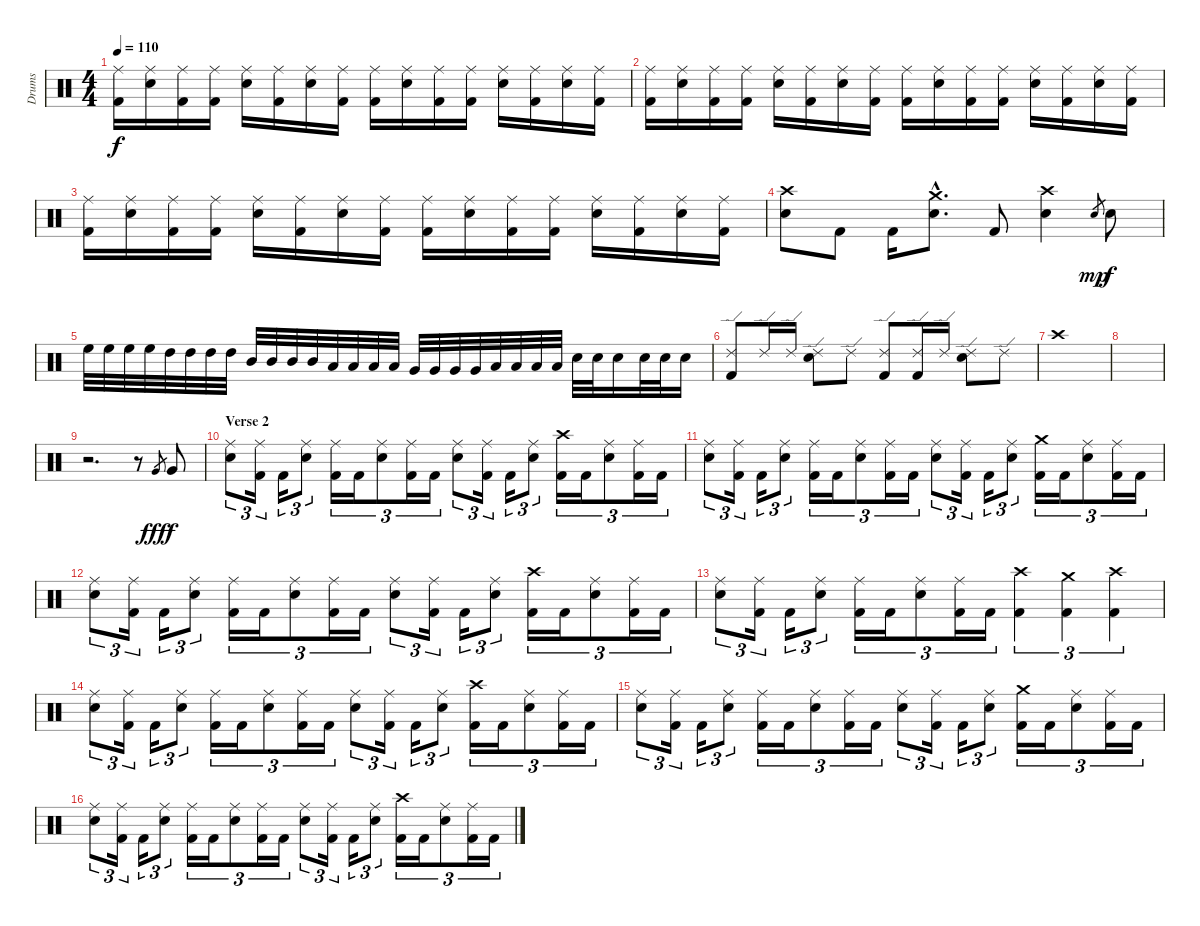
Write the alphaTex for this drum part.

\track ("Drums" "Drums") {instrument percussion}
\staff {score}
\articulation defaults
\ts (4 4)
\tempo 110
\clef neutral
\ks c
("Ride (middle)" "Kick (hit) 2").16{dy f} ("Ride (middle)" "Electric Snare (hit)").16 ("Ride (middle)" "Kick (hit) 2").16 ("Ride (middle)" "Kick (hit) 2").16 ("Ride (middle)" "Electric Snare (hit)").16 ("Ride (middle)" "Kick (hit) 2").16 ("Ride (middle)" "Electric Snare (hit)").16 ("Ride (middle)" "Kick (hit) 2").16 ("Ride (middle)" "Kick (hit) 2").16 ("Ride (middle)" "Electric Snare (hit)").16 ("Ride (middle)" "Kick (hit) 2").16 ("Ride (middle)" "Kick (hit) 2").16 ("Ride (middle)" "Electric Snare (hit)").16 ("Ride (middle)" "Kick (hit) 2").16 ("Ride (middle)" "Electric Snare (hit)").16 ("Ride (middle)" "Kick (hit) 2").16 |
("Ride (middle)" "Kick (hit) 2").16 ("Ride (middle)" "Electric Snare (hit)").16 ("Ride (middle)" "Kick (hit) 2").16 ("Ride (middle)" "Kick (hit) 2").16 ("Ride (middle)" "Electric Snare (hit)").16 ("Ride (middle)" "Kick (hit) 2").16 ("Ride (middle)" "Electric Snare (hit)").16 ("Ride (middle)" "Kick (hit) 2").16 ("Ride (middle)" "Kick (hit) 2").16 ("Ride (middle)" "Electric Snare (hit)").16 ("Ride (middle)" "Kick (hit) 2").16 ("Ride (middle)" "Kick (hit) 2").16 ("Ride (middle)" "Electric Snare (hit)").16 ("Ride (middle)" "Kick (hit) 2").16 ("Ride (middle)" "Electric Snare (hit)").16 ("Ride (middle)" "Kick (hit) 2").16 |
("Ride (middle)" "Kick (hit) 2").16 ("Ride (middle)" "Electric Snare (hit)").16 ("Ride (middle)" "Kick (hit) 2").16 ("Ride (middle)" "Kick (hit) 2").16 ("Ride (middle)" "Electric Snare (hit)").16 ("Ride (middle)" "Kick (hit) 2").16 ("Ride (middle)" "Electric Snare (hit)").16 ("Ride (middle)" "Kick (hit) 2").16 ("Ride (middle)" "Kick (hit) 2").16 ("Ride (middle)" "Electric Snare (hit)").16 ("Ride (middle)" "Kick (hit) 2").16 ("Ride (middle)" "Kick (hit) 2").16 ("Ride (middle)" "Electric Snare (hit)").16 ("Ride (middle)" "Kick (hit) 2").16 ("Ride (middle)" "Electric Snare (hit)").16 ("Ride (middle)" "Kick (hit) 2").16 |
("Crash high (hit)" "Electric Snare (hit)").8 "Kick (hit) 2".8 "Kick (hit) 2".16 ("Crash medium (hit)"{hac} "Electric Snare (hit)"{hac}).8{d} "Kick (hit) 2".8 ("Crash high (hit)" "Electric Snare (hit)").4 "Electric Snare (hit)"{h}.8{gr dy mp} "Electric Snare (hit)".8{dy f} |
"High Floor Tom (hit)".32 "High Floor Tom (hit)".32 "High Floor Tom (hit)".32 "High Floor Tom (hit)".32 "High Tom (hit)".32 "High Tom (hit)".32 "High Tom (hit)".32 "High Tom (hit)".32 "Mid Tom (hit)".32 "Mid Tom (hit)".32 "Mid Tom (hit)".32 "Mid Tom (hit)".32 "Low Tom (hit)".32 "Low Tom (hit)".32 "Low Tom (hit)".32 "Low Tom (hit)".32 "Very Low Tom (hit)".32 "Very Low Tom (hit)".32 "Very Low Tom (hit)".32 "Very Low Tom (hit)".32 "Low Floor Tom (hit)".32 "Low Floor Tom (hit)".32 "Low Floor Tom (hit)".32 "Low Floor Tom (hit)".32 "Snare (hit) 2".32 "Snare (hit) 2".32 "Snare (hit) 2".16 "Electric Snare (hit)".32 "Electric Snare (hit)".32 "Electric Snare (hit)".16 |
("Ride (edge) 2" "Kick (hit) 2").8 "Ride (edge) 2".16 "Ride (edge) 2".16 ("Ride (edge) 2" "Snare (hit) 2").8 "Ride (edge) 2".8 ("Ride (edge) 2" "Kick (hit) 2").8 ("Ride (edge) 2" "Kick (hit) 2").16 "Ride (edge) 2".16 ("Ride (edge) 2" "Snare (hit) 2").8 "Ride (edge) 2".8 |
"Crash high (hit)".1 |
|
r.2{d} r.8 "Very Low Tom (hit)"{h}.8{gr dy fff} "Very Low Tom (hit)".8{dy f} |
\section ("" "Verse 2")
("Ride (middle)" "Electric Snare (hit)").8{tu (3 2)} ("Ride (middle)" "Kick (hit) 2").16{tu (3 2)} "Kick (hit) 2".16{tu (3 2)} ("Ride (middle)" "Electric Snare (hit)").8{tu (3 2)} ("Ride (middle)" "Kick (hit) 2").16{tu (3 2)} "Kick (hit) 2".16{tu (3 2)} ("Ride (middle)" "Electric Snare (hit)").8{tu (3 2)} ("Ride (middle)" "Kick (hit) 2").16{tu (3 2)} "Kick (hit) 2".16{tu (3 2)} ("Ride (middle)" "Electric Snare (hit)").8{tu (3 2)} ("Ride (middle)" "Kick (hit) 2").16{tu (3 2)} "Kick (hit) 2".16{tu (3 2)} ("Ride (middle)" "Electric Snare (hit)").8{tu (3 2)} ("Crash high (hit)" "Kick (hit) 2").16{tu (3 2)} "Kick (hit) 2".16{tu (3 2)} ("Ride (middle)" "Electric Snare (hit)").8{tu (3 2)} ("Ride (middle)" "Kick (hit) 2").16{tu (3 2)} "Kick (hit) 2".16{tu (3 2)} |
("Ride (middle)" "Electric Snare (hit)").8{tu (3 2)} ("Ride (middle)" "Kick (hit) 2").16{tu (3 2)} "Kick (hit) 2".16{tu (3 2)} ("Ride (middle)" "Electric Snare (hit)").8{tu (3 2)} ("Ride (middle)" "Kick (hit) 2").16{tu (3 2)} "Kick (hit) 2".16{tu (3 2)} ("Ride (middle)" "Electric Snare (hit)").8{tu (3 2)} ("Ride (middle)" "Kick (hit) 2").16{tu (3 2)} "Kick (hit) 2".16{tu (3 2)} ("Ride (middle)" "Electric Snare (hit)").8{tu (3 2)} ("Ride (middle)" "Kick (hit) 2").16{tu (3 2)} "Kick (hit) 2".16{tu (3 2)} ("Ride (middle)" "Electric Snare (hit)").8{tu (3 2)} ("Crash medium (hit)" "Kick (hit) 2").16{tu (3 2)} "Kick (hit) 2".16{tu (3 2)} ("Ride (middle)" "Electric Snare (hit)").8{tu (3 2)} ("Ride (middle)" "Kick (hit) 2").16{tu (3 2)} "Kick (hit) 2".16{tu (3 2)} |
("Ride (middle)" "Electric Snare (hit)").8{tu (3 2)} ("Ride (middle)" "Kick (hit) 2").16{tu (3 2)} "Kick (hit) 2".16{tu (3 2)} ("Ride (middle)" "Electric Snare (hit)").8{tu (3 2)} ("Ride (middle)" "Kick (hit) 2").16{tu (3 2)} "Kick (hit) 2".16{tu (3 2)} ("Ride (middle)" "Electric Snare (hit)").8{tu (3 2)} ("Ride (middle)" "Kick (hit) 2").16{tu (3 2)} "Kick (hit) 2".16{tu (3 2)} ("Ride (middle)" "Electric Snare (hit)").8{tu (3 2)} ("Ride (middle)" "Kick (hit) 2").16{tu (3 2)} "Kick (hit) 2".16{tu (3 2)} ("Ride (middle)" "Electric Snare (hit)").8{tu (3 2)} ("Crash high (hit)" "Kick (hit) 2").16{tu (3 2)} "Kick (hit) 2".16{tu (3 2)} ("Ride (middle)" "Electric Snare (hit)").8{tu (3 2)} ("Ride (middle)" "Kick (hit) 2").16{tu (3 2)} "Kick (hit) 2".16{tu (3 2)} |
("Ride (middle)" "Electric Snare (hit)").8{tu (3 2)} ("Ride (middle)" "Kick (hit) 2").16{tu (3 2)} "Kick (hit) 2".16{tu (3 2)} ("Ride (middle)" "Electric Snare (hit)").8{tu (3 2)} ("Ride (middle)" "Kick (hit) 2").16{tu (3 2)} "Kick (hit) 2".16{tu (3 2)} ("Ride (middle)" "Electric Snare (hit)").8{tu (3 2)} ("Ride (middle)" "Kick (hit) 2").16{tu (3 2)} "Kick (hit) 2".16{tu (3 2)} ("Crash high (hit)" "Kick (hit) 2").4{tu (3 2)} ("Crash medium (hit)" "Kick (hit) 2").4{tu (3 2)} ("Crash high (hit)" "Kick (hit) 2").4{tu (3 2)} |
("Ride (middle)" "Electric Snare (hit)").8{tu (3 2)} ("Ride (middle)" "Kick (hit) 2").16{tu (3 2)} "Kick (hit) 2".16{tu (3 2)} ("Ride (middle)" "Electric Snare (hit)").8{tu (3 2)} ("Ride (middle)" "Kick (hit) 2").16{tu (3 2)} "Kick (hit) 2".16{tu (3 2)} ("Ride (middle)" "Electric Snare (hit)").8{tu (3 2)} ("Ride (middle)" "Kick (hit) 2").16{tu (3 2)} "Kick (hit) 2".16{tu (3 2)} ("Ride (middle)" "Electric Snare (hit)").8{tu (3 2)} ("Ride (middle)" "Kick (hit) 2").16{tu (3 2)} "Kick (hit) 2".16{tu (3 2)} ("Ride (middle)" "Electric Snare (hit)").8{tu (3 2)} ("Crash high (hit)" "Kick (hit) 2").16{tu (3 2)} "Kick (hit) 2".16{tu (3 2)} ("Ride (middle)" "Electric Snare (hit)").8{tu (3 2)} ("Ride (middle)" "Kick (hit) 2").16{tu (3 2)} "Kick (hit) 2".16{tu (3 2)} |
("Ride (middle)" "Electric Snare (hit)").8{tu (3 2)} ("Ride (middle)" "Kick (hit) 2").16{tu (3 2)} "Kick (hit) 2".16{tu (3 2)} ("Ride (middle)" "Electric Snare (hit)").8{tu (3 2)} ("Ride (middle)" "Kick (hit) 2").16{tu (3 2)} "Kick (hit) 2".16{tu (3 2)} ("Ride (middle)" "Electric Snare (hit)").8{tu (3 2)} ("Ride (middle)" "Kick (hit) 2").16{tu (3 2)} "Kick (hit) 2".16{tu (3 2)} ("Ride (middle)" "Electric Snare (hit)").8{tu (3 2)} ("Ride (middle)" "Kick (hit) 2").16{tu (3 2)} "Kick (hit) 2".16{tu (3 2)} ("Ride (middle)" "Electric Snare (hit)").8{tu (3 2)} ("Crash medium (hit)" "Kick (hit) 2").16{tu (3 2)} "Kick (hit) 2".16{tu (3 2)} ("Ride (middle)" "Electric Snare (hit)").8{tu (3 2)} ("Ride (middle)" "Kick (hit) 2").16{tu (3 2)} "Kick (hit) 2".16{tu (3 2)} |
("Ride (middle)" "Electric Snare (hit)").8{tu (3 2)} ("Ride (middle)" "Kick (hit) 2").16{tu (3 2)} "Kick (hit) 2".16{tu (3 2)} ("Ride (middle)" "Electric Snare (hit)").8{tu (3 2)} ("Ride (middle)" "Kick (hit) 2").16{tu (3 2)} "Kick (hit) 2".16{tu (3 2)} ("Ride (middle)" "Electric Snare (hit)").8{tu (3 2)} ("Ride (middle)" "Kick (hit) 2").16{tu (3 2)} "Kick (hit) 2".16{tu (3 2)} ("Ride (middle)" "Electric Snare (hit)").8{tu (3 2)} ("Ride (middle)" "Kick (hit) 2").16{tu (3 2)} "Kick (hit) 2".16{tu (3 2)} ("Ride (middle)" "Electric Snare (hit)").8{tu (3 2)} ("Crash high (hit)" "Kick (hit) 2").16{tu (3 2)} "Kick (hit) 2".16{tu (3 2)} ("Ride (middle)" "Electric Snare (hit)").8{tu (3 2)} ("Ride (middle)" "Kick (hit) 2").16{tu (3 2)} "Kick (hit) 2".16{tu (3 2)}
